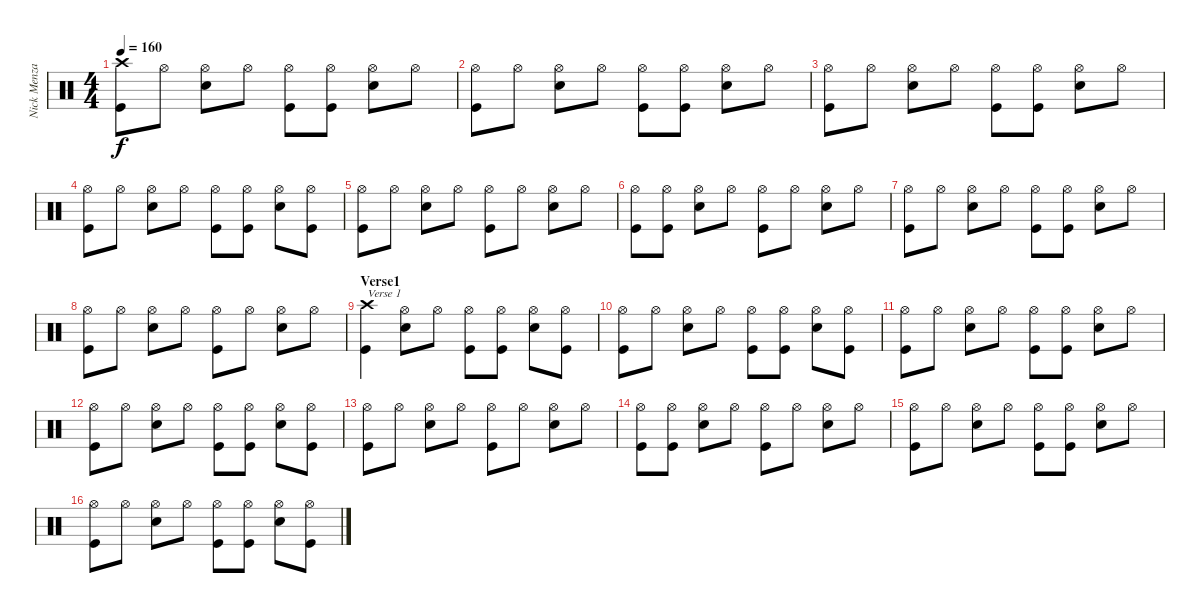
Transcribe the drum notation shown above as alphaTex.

\track ("Nick Menza" "Nick Menza") {instrument percussion}
\staff {score}
\articulation defaults
\ts (4 4)
\tempo 160
\clef neutral
\ks c
("Crash high (hit)" "Kick (hit)").8{dy f} "Hi-Hat (open)".8 ("Hi-Hat (open)" "Snare (hit) 2").8 "Hi-Hat (open)".8 ("Hi-Hat (open)" "Kick (hit)").8 ("Hi-Hat (open)" "Kick (hit)").8 ("Hi-Hat (open)" "Snare (hit) 2").8 "Hi-Hat (open)".8 |
("Hi-Hat (open)" "Kick (hit)").8 "Hi-Hat (open)".8 ("Hi-Hat (open)" "Snare (hit) 2").8 "Hi-Hat (open)".8 ("Hi-Hat (open)" "Kick (hit)").8 ("Hi-Hat (open)" "Kick (hit)").8 ("Hi-Hat (open)" "Snare (hit) 2").8 "Hi-Hat (open)".8 |
("Hi-Hat (open)" "Kick (hit)").8 "Hi-Hat (open)".8 ("Hi-Hat (open)" "Snare (hit) 2").8 "Hi-Hat (open)".8 ("Hi-Hat (open)" "Kick (hit)").8 ("Hi-Hat (open)" "Kick (hit)").8 ("Hi-Hat (open)" "Snare (hit) 2").8 "Hi-Hat (open)".8 |
("Hi-Hat (open)" "Kick (hit)").8 "Hi-Hat (open)".8 ("Hi-Hat (open)" "Snare (hit) 2").8 "Hi-Hat (open)".8 ("Hi-Hat (open)" "Kick (hit)").8 ("Hi-Hat (open)" "Kick (hit)").8 ("Hi-Hat (open)" "Snare (hit) 2").8 ("Hi-Hat (open)" "Kick (hit)").8 |
("Hi-Hat (open)" "Kick (hit)").8 "Hi-Hat (open)".8 ("Hi-Hat (open)" "Snare (hit) 2").8 "Hi-Hat (open)".8 ("Hi-Hat (open)" "Kick (hit)").8 "Hi-Hat (open)".8 ("Hi-Hat (open)" "Snare (hit) 2").8 "Hi-Hat (open)".8 |
("Hi-Hat (open)" "Kick (hit)").8 ("Hi-Hat (open)" "Kick (hit)").8 ("Hi-Hat (open)" "Snare (hit) 2").8 "Hi-Hat (open)".8 ("Hi-Hat (open)" "Kick (hit)").8 "Hi-Hat (open)".8 ("Hi-Hat (open)" "Snare (hit) 2").8 "Hi-Hat (open)".8 |
("Hi-Hat (open)" "Kick (hit)").8 "Hi-Hat (open)".8 ("Hi-Hat (open)" "Snare (hit) 2").8 "Hi-Hat (open)".8 ("Hi-Hat (open)" "Kick (hit)").8 ("Hi-Hat (open)" "Kick (hit)").8 ("Hi-Hat (open)" "Snare (hit) 2").8 "Hi-Hat (open)".8 |
("Hi-Hat (open)" "Kick (hit)").8 "Hi-Hat (open)".8 ("Hi-Hat (open)" "Snare (hit) 2").8 "Hi-Hat (open)".8 ("Hi-Hat (open)" "Kick (hit)").8 "Hi-Hat (open)".8 ("Hi-Hat (open)" "Snare (hit) 2").8 "Hi-Hat (open)".8 |
\section ("" "Verse1")
("Crash high (hit)" "Kick (hit)").4{txt "Verse 1"} ("Hi-Hat (open)" "Snare (hit) 2").8 "Hi-Hat (open)".8 ("Hi-Hat (open)" "Kick (hit)").8 ("Hi-Hat (open)" "Kick (hit)").8 ("Hi-Hat (open)" "Snare (hit) 2").8 ("Hi-Hat (open)" "Kick (hit)").8 |
("Hi-Hat (open)" "Kick (hit)").8 "Hi-Hat (open)".8 ("Hi-Hat (open)" "Snare (hit) 2").8 "Hi-Hat (open)".8 ("Hi-Hat (open)" "Kick (hit)").8 ("Hi-Hat (open)" "Kick (hit)").8 ("Hi-Hat (open)" "Snare (hit) 2").8 ("Hi-Hat (open)" "Kick (hit)").8 |
("Hi-Hat (open)" "Kick (hit)").8 "Hi-Hat (open)".8 ("Hi-Hat (open)" "Snare (hit) 2").8 "Hi-Hat (open)".8 ("Hi-Hat (open)" "Kick (hit)").8 ("Hi-Hat (open)" "Kick (hit)").8 ("Hi-Hat (open)" "Snare (hit) 2").8 "Hi-Hat (open)".8 |
("Hi-Hat (open)" "Kick (hit)").8 "Hi-Hat (open)".8 ("Hi-Hat (open)" "Snare (hit) 2").8 "Hi-Hat (open)".8 ("Hi-Hat (open)" "Kick (hit)").8 ("Hi-Hat (open)" "Kick (hit)").8 ("Hi-Hat (open)" "Snare (hit) 2").8 ("Hi-Hat (open)" "Kick (hit)").8 |
("Hi-Hat (open)" "Kick (hit)").8 "Hi-Hat (open)".8 ("Hi-Hat (open)" "Snare (hit) 2").8 "Hi-Hat (open)".8 ("Hi-Hat (open)" "Kick (hit)").8 "Hi-Hat (open)".8 ("Hi-Hat (open)" "Snare (hit) 2").8 "Hi-Hat (open)".8 |
("Hi-Hat (open)" "Kick (hit)").8 ("Hi-Hat (open)" "Kick (hit)").8 ("Hi-Hat (open)" "Snare (hit) 2").8 "Hi-Hat (open)".8 ("Hi-Hat (open)" "Kick (hit)").8 "Hi-Hat (open)".8 ("Hi-Hat (open)" "Snare (hit) 2").8 "Hi-Hat (open)".8 |
("Hi-Hat (open)" "Kick (hit)").8 "Hi-Hat (open)".8 ("Hi-Hat (open)" "Snare (hit) 2").8 "Hi-Hat (open)".8 ("Hi-Hat (open)" "Kick (hit)").8 ("Hi-Hat (open)" "Kick (hit)").8 ("Hi-Hat (open)" "Snare (hit) 2").8 "Hi-Hat (open)".8 |
("Hi-Hat (open)" "Kick (hit)").8 "Hi-Hat (open)".8 ("Hi-Hat (open)" "Snare (hit) 2").8 "Hi-Hat (open)".8 ("Hi-Hat (open)" "Kick (hit)").8 ("Hi-Hat (open)" "Kick (hit)").8 ("Hi-Hat (open)" "Snare (hit) 2").8 ("Hi-Hat (open)" "Kick (hit)").8
